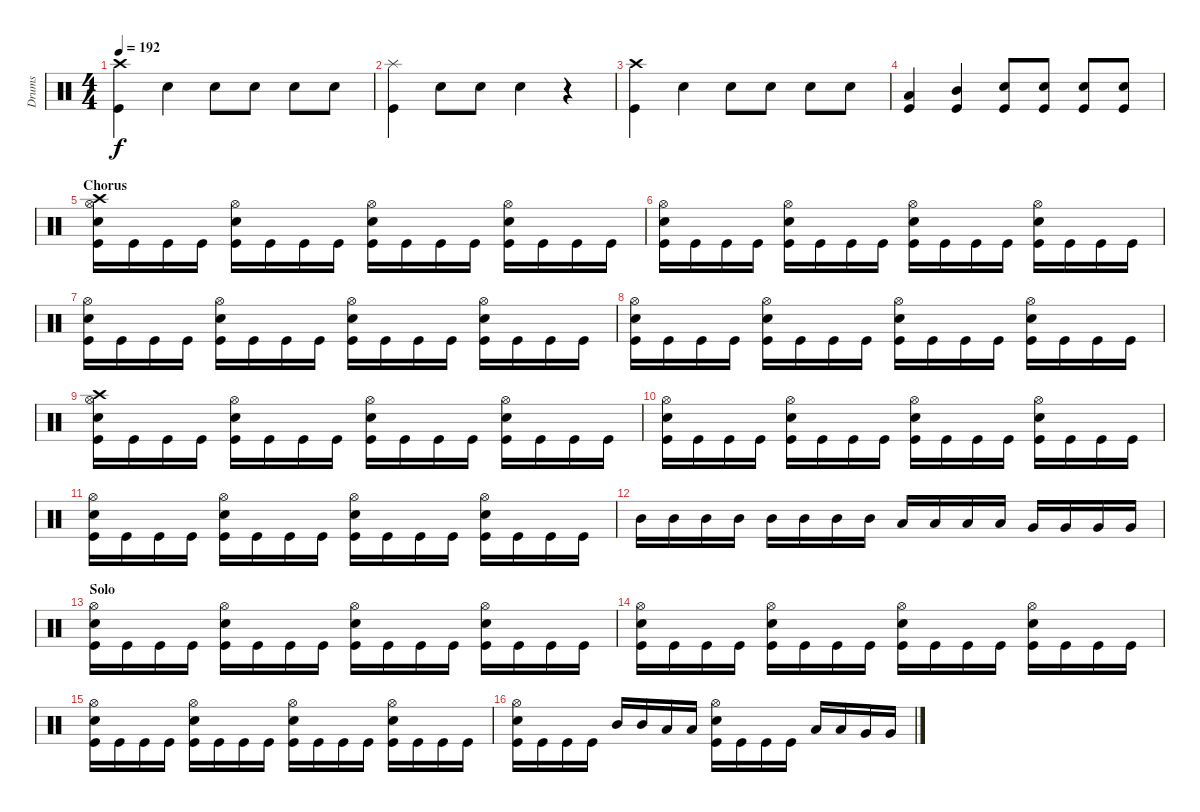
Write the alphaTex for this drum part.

\track ("Drums" "Drums") {instrument percussion}
\staff {score}
\articulation defaults
\ts (4 4)
\tempo 192
\clef neutral
\ks c
("Crash high (hit)" "Kick (hit)").4{dy f} "Snare (hit) 2".4 "Snare (hit) 2".8 "Snare (hit) 2".8 "Snare (hit) 2".8 "Snare (hit) 2".8 |
("Splash (hit)" "Kick (hit)").4 "Snare (hit) 2".8 "Snare (hit) 2".8 "Snare (hit) 2".4 r.4 |
("Crash high (hit)" "Kick (hit)").4 "Snare (hit) 2"{tr (38 16)}.4 "Snare (hit) 2".8 "Snare (hit) 2".8 "Snare (hit) 2".8 "Snare (hit) 2".8 |
("Low Tom (hit)" "Kick (hit)").4 ("Mid Tom (hit)" "Kick (hit)").4 ("Snare (hit) 2" "Kick (hit)").8 ("Snare (hit) 2" "Kick (hit)").8 ("Snare (hit) 2" "Kick (hit)").8 ("Snare (hit) 2" "Kick (hit)").8 |
\section ("" "Chorus")
("Crash high (hit)" "Hi-Hat (open)" "Snare (hit) 2" "Kick (hit)").16 "Kick (hit)".16 "Kick (hit)".16 "Kick (hit)".16 ("Hi-Hat (open)" "Snare (hit) 2" "Kick (hit)").16 "Kick (hit)".16 "Kick (hit)".16 "Kick (hit)".16 ("Hi-Hat (open)" "Snare (hit) 2" "Kick (hit)").16 "Kick (hit)".16 "Kick (hit)".16 "Kick (hit)".16 ("Hi-Hat (open)" "Snare (hit) 2" "Kick (hit)").16 "Kick (hit)".16 "Kick (hit)".16 "Kick (hit)".16 |
("Hi-Hat (open)" "Snare (hit) 2" "Kick (hit)").16 "Kick (hit)".16 "Kick (hit)".16 "Kick (hit)".16 ("Hi-Hat (open)" "Snare (hit) 2" "Kick (hit)").16 "Kick (hit)".16 "Kick (hit)".16 "Kick (hit)".16 ("Hi-Hat (open)" "Snare (hit) 2" "Kick (hit)").16 "Kick (hit)".16 "Kick (hit)".16 "Kick (hit)".16 ("Hi-Hat (open)" "Snare (hit) 2" "Kick (hit)").16 "Kick (hit)".16 "Kick (hit)".16 "Kick (hit)".16 |
("Hi-Hat (open)" "Snare (hit) 2" "Kick (hit)").16 "Kick (hit)".16 "Kick (hit)".16 "Kick (hit)".16 ("Hi-Hat (open)" "Snare (hit) 2" "Kick (hit)").16 "Kick (hit)".16 "Kick (hit)".16 "Kick (hit)".16 ("Hi-Hat (open)" "Snare (hit) 2" "Kick (hit)").16 "Kick (hit)".16 "Kick (hit)".16 "Kick (hit)".16 ("Hi-Hat (open)" "Snare (hit) 2" "Kick (hit)").16 "Kick (hit)".16 "Kick (hit)".16 "Kick (hit)".16 |
("Hi-Hat (open)" "Snare (hit) 2" "Kick (hit)").16 "Kick (hit)".16 "Kick (hit)".16 "Kick (hit)".16 ("Hi-Hat (open)" "Snare (hit) 2" "Kick (hit)").16 "Kick (hit)".16 "Kick (hit)".16 "Kick (hit)".16 ("Hi-Hat (open)" "Snare (hit) 2" "Kick (hit)").16 "Kick (hit)".16 "Kick (hit)".16 "Kick (hit)".16 ("Hi-Hat (open)" "Snare (hit) 2" "Kick (hit)").16 "Kick (hit)".16 "Kick (hit)".16 "Kick (hit)".16 |
("Crash high (hit)" "Hi-Hat (open)" "Snare (hit) 2" "Kick (hit)").16 "Kick (hit)".16 "Kick (hit)".16 "Kick (hit)".16 ("Hi-Hat (open)" "Snare (hit) 2" "Kick (hit)").16 "Kick (hit)".16 "Kick (hit)".16 "Kick (hit)".16 ("Hi-Hat (open)" "Snare (hit) 2" "Kick (hit)").16 "Kick (hit)".16 "Kick (hit)".16 "Kick (hit)".16 ("Hi-Hat (open)" "Snare (hit) 2" "Kick (hit)").16 "Kick (hit)".16 "Kick (hit)".16 "Kick (hit)".16 |
("Hi-Hat (open)" "Snare (hit) 2" "Kick (hit)").16 "Kick (hit)".16 "Kick (hit)".16 "Kick (hit)".16 ("Hi-Hat (open)" "Snare (hit) 2" "Kick (hit)").16 "Kick (hit)".16 "Kick (hit)".16 "Kick (hit)".16 ("Hi-Hat (open)" "Snare (hit) 2" "Kick (hit)").16 "Kick (hit)".16 "Kick (hit)".16 "Kick (hit)".16 ("Hi-Hat (open)" "Snare (hit) 2" "Kick (hit)").16 "Kick (hit)".16 "Kick (hit)".16 "Kick (hit)".16 |
("Hi-Hat (open)" "Snare (hit) 2" "Kick (hit)").16 "Kick (hit)".16 "Kick (hit)".16 "Kick (hit)".16 ("Hi-Hat (open)" "Snare (hit) 2" "Kick (hit)").16 "Kick (hit)".16 "Kick (hit)".16 "Kick (hit)".16 ("Hi-Hat (open)" "Snare (hit) 2" "Kick (hit)").16 "Kick (hit)".16 "Kick (hit)".16 "Kick (hit)".16 ("Hi-Hat (open)" "Snare (hit) 2" "Kick (hit)").16 "Kick (hit)".16 "Kick (hit)".16 "Kick (hit)".16 |
"Mid Tom (hit)".16 "Mid Tom (hit)".16 "Mid Tom (hit)".16 "Mid Tom (hit)".16 "Mid Tom (hit)".16 "Mid Tom (hit)".16 "Mid Tom (hit)".16 "Mid Tom (hit)".16 "Low Tom (hit)".16 "Low Tom (hit)".16 "Low Tom (hit)".16 "Low Tom (hit)".16 "Very Low Tom (hit)".16 "Very Low Tom (hit)".16 "Very Low Tom (hit)".16 "Very Low Tom (hit)".16 |
\section ("" "Solo")
("Hi-Hat (open)" "Snare (hit) 2" "Kick (hit)").16 "Kick (hit)".16 "Kick (hit)".16 "Kick (hit)".16 ("Hi-Hat (open)" "Snare (hit) 2" "Kick (hit)").16 "Kick (hit)".16 "Kick (hit)".16 "Kick (hit)".16 ("Hi-Hat (open)" "Snare (hit) 2" "Kick (hit)").16 "Kick (hit)".16 "Kick (hit)".16 "Kick (hit)".16 ("Hi-Hat (open)" "Snare (hit) 2" "Kick (hit)").16 "Kick (hit)".16 "Kick (hit)".16 "Kick (hit)".16 |
("Hi-Hat (open)" "Snare (hit) 2" "Kick (hit)").16 "Kick (hit)".16 "Kick (hit)".16 "Kick (hit)".16 ("Hi-Hat (open)" "Snare (hit) 2" "Kick (hit)").16 "Kick (hit)".16 "Kick (hit)".16 "Kick (hit)".16 ("Hi-Hat (open)" "Snare (hit) 2" "Kick (hit)").16 "Kick (hit)".16 "Kick (hit)".16 "Kick (hit)".16 ("Hi-Hat (open)" "Snare (hit) 2" "Kick (hit)").16 "Kick (hit)".16 "Kick (hit)".16 "Kick (hit)".16 |
("Hi-Hat (open)" "Snare (hit) 2" "Kick (hit)").16 "Kick (hit)".16 "Kick (hit)".16 "Kick (hit)".16 ("Hi-Hat (open)" "Snare (hit) 2" "Kick (hit)").16 "Kick (hit)".16 "Kick (hit)".16 "Kick (hit)".16 ("Hi-Hat (open)" "Snare (hit) 2" "Kick (hit)").16 "Kick (hit)".16 "Kick (hit)".16 "Kick (hit)".16 ("Hi-Hat (open)" "Snare (hit) 2" "Kick (hit)").16 "Kick (hit)".16 "Kick (hit)".16 "Kick (hit)".16 |
("Hi-Hat (open)" "Snare (hit) 2" "Kick (hit)").16 "Kick (hit)".16 "Kick (hit)".16 "Kick (hit)".16 "Mid Tom (hit)".16 "Mid Tom (hit)".16 "Low Tom (hit)".16 "Low Tom (hit)".16 ("Hi-Hat (open)" "Snare (hit) 2" "Kick (hit)").16 "Kick (hit)".16 "Kick (hit)".16 "Kick (hit)".16 "Low Tom (hit)".16 "Low Tom (hit)".16 "Very Low Tom (hit)".16 "Very Low Tom (hit)".16
